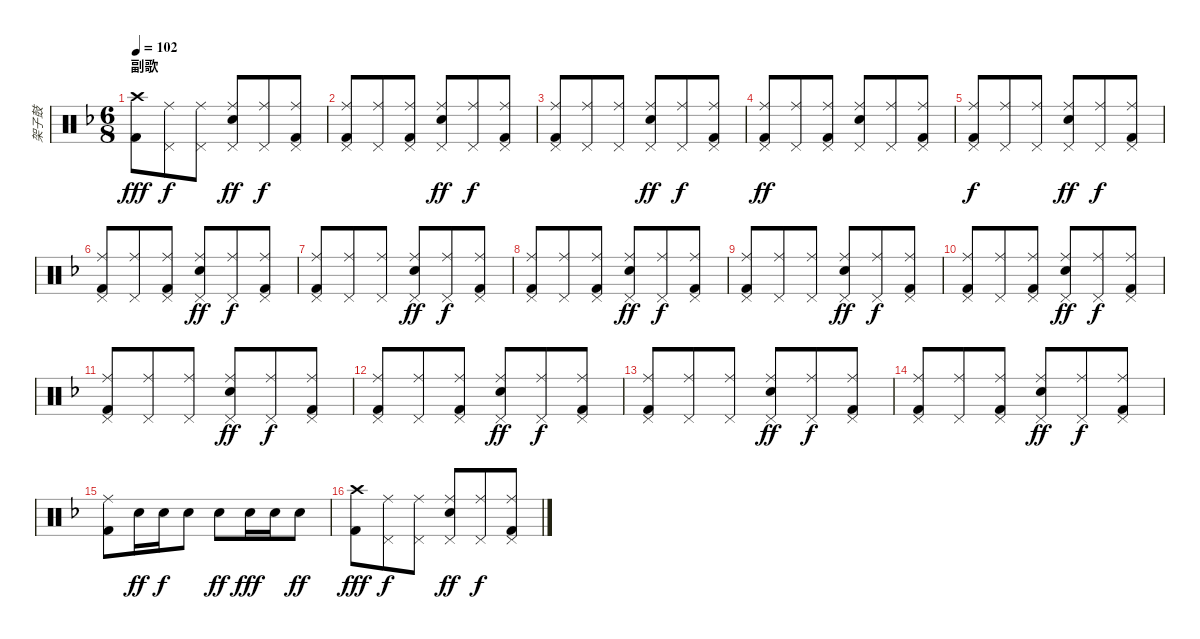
\track ("架子鼓" "架子鼓") {instrument percussion}
\staff {score}
\articulation defaults
\ts (6 8)
\section ("" "副歌")
\tempo 102
\clef neutral
\ks f
("Crash high (hit)" "Kick (hit) 2").8{dy fff} ("Ride (middle)" "Pedal Hi-Hat (hit)").8{dy f} ("Ride (middle)" "Pedal Hi-Hat (hit)").8 ("Ride (middle)" "Electric Snare (hit)" "Pedal Hi-Hat (hit)").8{dy ff} ("Ride (middle)" "Pedal Hi-Hat (hit)").8{dy f} ("Ride (middle)" "Pedal Hi-Hat (hit)" "Kick (hit) 2").8 |
("Ride (middle)" "Pedal Hi-Hat (hit)" "Kick (hit) 2").8 ("Ride (middle)" "Pedal Hi-Hat (hit)").8 ("Ride (middle)" "Pedal Hi-Hat (hit)" "Kick (hit) 2").8 ("Ride (middle)" "Electric Snare (hit)" "Pedal Hi-Hat (hit)").8{dy ff} ("Ride (middle)" "Pedal Hi-Hat (hit)").8{dy f} ("Ride (middle)" "Pedal Hi-Hat (hit)" "Kick (hit) 2").8 |
("Ride (middle)" "Pedal Hi-Hat (hit)" "Kick (hit) 2").8 ("Ride (middle)" "Pedal Hi-Hat (hit)").8 ("Ride (middle)" "Pedal Hi-Hat (hit)").8 ("Ride (middle)" "Electric Snare (hit)" "Pedal Hi-Hat (hit)").8{dy ff} ("Ride (middle)" "Pedal Hi-Hat (hit)").8{dy f} ("Ride (middle)" "Pedal Hi-Hat (hit)" "Kick (hit) 2").8 |
("Ride (middle)" "Pedal Hi-Hat (hit)" "Kick (hit) 2").8{dy ff} ("Ride (middle)" "Pedal Hi-Hat (hit)").8 ("Ride (middle)" "Pedal Hi-Hat (hit)" "Kick (hit) 2").8 ("Ride (middle)" "Electric Snare (hit)" "Pedal Hi-Hat (hit)").8 ("Ride (middle)" "Pedal Hi-Hat (hit)").8 ("Ride (middle)" "Pedal Hi-Hat (hit)" "Kick (hit) 2").8 |
("Ride (middle)" "Pedal Hi-Hat (hit)" "Kick (hit) 2").8{dy f} ("Ride (middle)" "Pedal Hi-Hat (hit)").8 ("Ride (middle)" "Pedal Hi-Hat (hit)").8 ("Ride (middle)" "Electric Snare (hit)" "Pedal Hi-Hat (hit)").8{dy ff} ("Ride (middle)" "Pedal Hi-Hat (hit)").8{dy f} ("Ride (middle)" "Pedal Hi-Hat (hit)" "Kick (hit) 2").8 |
("Ride (middle)" "Pedal Hi-Hat (hit)" "Kick (hit) 2").8 ("Ride (middle)" "Pedal Hi-Hat (hit)").8 ("Ride (middle)" "Pedal Hi-Hat (hit)" "Kick (hit) 2").8 ("Ride (middle)" "Electric Snare (hit)" "Pedal Hi-Hat (hit)").8{dy ff} ("Ride (middle)" "Pedal Hi-Hat (hit)").8{dy f} ("Ride (middle)" "Pedal Hi-Hat (hit)" "Kick (hit) 2").8 |
("Ride (middle)" "Pedal Hi-Hat (hit)" "Kick (hit) 2").8 ("Ride (middle)" "Pedal Hi-Hat (hit)").8 ("Ride (middle)" "Pedal Hi-Hat (hit)").8 ("Ride (middle)" "Electric Snare (hit)" "Pedal Hi-Hat (hit)").8{dy ff} ("Ride (middle)" "Pedal Hi-Hat (hit)").8{dy f} ("Ride (middle)" "Pedal Hi-Hat (hit)" "Kick (hit) 2").8 |
("Ride (middle)" "Pedal Hi-Hat (hit)" "Kick (hit) 2").8 ("Ride (middle)" "Pedal Hi-Hat (hit)").8 ("Ride (middle)" "Pedal Hi-Hat (hit)" "Kick (hit) 2").8 ("Ride (middle)" "Electric Snare (hit)" "Pedal Hi-Hat (hit)").8{dy ff} ("Ride (middle)" "Pedal Hi-Hat (hit)").8{dy f} ("Ride (middle)" "Pedal Hi-Hat (hit)" "Kick (hit) 2").8 |
("Ride (middle)" "Pedal Hi-Hat (hit)" "Kick (hit) 2").8 ("Ride (middle)" "Pedal Hi-Hat (hit)").8 ("Ride (middle)" "Pedal Hi-Hat (hit)").8 ("Ride (middle)" "Electric Snare (hit)" "Pedal Hi-Hat (hit)").8{dy ff} ("Ride (middle)" "Pedal Hi-Hat (hit)").8{dy f} ("Ride (middle)" "Pedal Hi-Hat (hit)" "Kick (hit) 2").8 |
("Ride (middle)" "Pedal Hi-Hat (hit)" "Kick (hit) 2").8 ("Ride (middle)" "Pedal Hi-Hat (hit)").8 ("Ride (middle)" "Pedal Hi-Hat (hit)" "Kick (hit) 2").8 ("Ride (middle)" "Electric Snare (hit)" "Pedal Hi-Hat (hit)").8{dy ff} ("Ride (middle)" "Pedal Hi-Hat (hit)").8{dy f} ("Ride (middle)" "Pedal Hi-Hat (hit)" "Kick (hit) 2").8 |
("Ride (middle)" "Pedal Hi-Hat (hit)" "Kick (hit) 2").8 ("Ride (middle)" "Pedal Hi-Hat (hit)").8 ("Ride (middle)" "Pedal Hi-Hat (hit)").8 ("Ride (middle)" "Electric Snare (hit)" "Pedal Hi-Hat (hit)").8{dy ff} ("Ride (middle)" "Pedal Hi-Hat (hit)").8{dy f} ("Ride (middle)" "Pedal Hi-Hat (hit)" "Kick (hit) 2").8 |
("Ride (middle)" "Pedal Hi-Hat (hit)" "Kick (hit) 2").8 ("Ride (middle)" "Pedal Hi-Hat (hit)").8 ("Ride (middle)" "Pedal Hi-Hat (hit)" "Kick (hit) 2").8 ("Ride (middle)" "Electric Snare (hit)" "Pedal Hi-Hat (hit)").8{dy ff} ("Ride (middle)" "Pedal Hi-Hat (hit)").8{dy f} ("Ride (middle)" "Pedal Hi-Hat (hit)" "Kick (hit) 2").8 |
("Ride (middle)" "Pedal Hi-Hat (hit)" "Kick (hit) 2").8 ("Ride (middle)" "Pedal Hi-Hat (hit)").8 ("Ride (middle)" "Pedal Hi-Hat (hit)").8 ("Ride (middle)" "Electric Snare (hit)" "Pedal Hi-Hat (hit)").8{dy ff} ("Ride (middle)" "Pedal Hi-Hat (hit)").8{dy f} ("Ride (middle)" "Pedal Hi-Hat (hit)" "Kick (hit) 2").8 |
("Ride (middle)" "Pedal Hi-Hat (hit)" "Kick (hit) 2").8 ("Ride (middle)" "Pedal Hi-Hat (hit)").8 ("Ride (middle)" "Pedal Hi-Hat (hit)" "Kick (hit) 2").8 ("Ride (middle)" "Electric Snare (hit)" "Pedal Hi-Hat (hit)").8{dy ff} ("Ride (middle)" "Pedal Hi-Hat (hit)").8{dy f} ("Ride (middle)" "Pedal Hi-Hat (hit)" "Kick (hit) 2").8 |
("Ride (middle)" "Kick (hit) 2").8 "Electric Snare (hit)".16{dy ff} "Electric Snare (hit)".16{dy f} "Electric Snare (hit)".8 "Electric Snare (hit)".8{dy ff} "Electric Snare (hit)".16{dy fff} "Electric Snare (hit)".16 "Electric Snare (hit)".8{dy ff} |
("Crash high (hit)" "Kick (hit) 2").8{dy fff} ("Ride (middle)" "Pedal Hi-Hat (hit)").8{dy f} ("Ride (middle)" "Pedal Hi-Hat (hit)").8 ("Ride (middle)" "Electric Snare (hit)" "Pedal Hi-Hat (hit)").8{dy ff} ("Ride (middle)" "Pedal Hi-Hat (hit)").8{dy f} ("Ride (middle)" "Pedal Hi-Hat (hit)" "Kick (hit) 2").8
